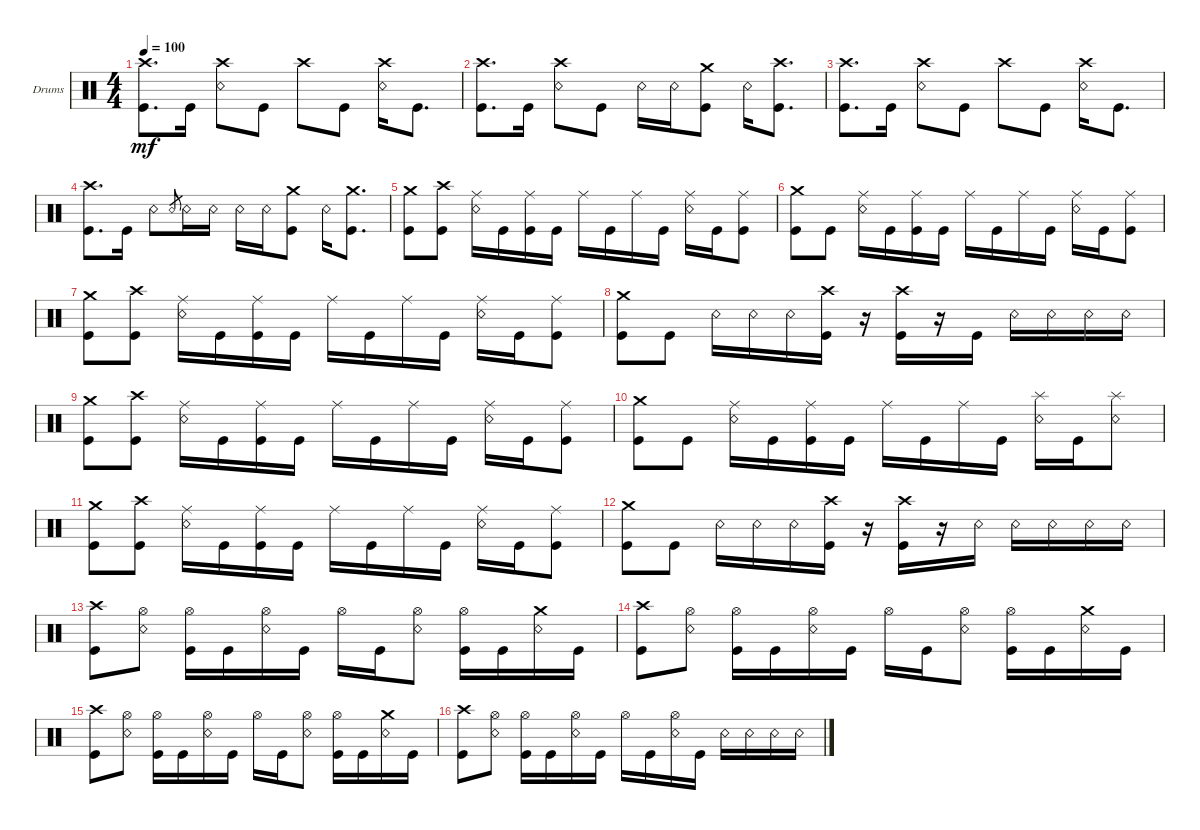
\defaultSystemsLayout 4
\bracketExtendMode groupsimilarinstruments
\firstSystemTrackNameOrientation horizontal
\otherSystemsTrackNameOrientation horizontal
\track ("Drumkit" "Drums") {instrument percussion}
\staff {score}
\articulation defaults
\ts (4 4)
\tempo 100
\clef neutral
\ks c
("Kick (hit)" "Crash high (hit)").8{d dy mf} "Kick (hit)".16 ("Snare (rim shot)" "Crash high (hit)").8 "Kick (hit)".8 "Crash high (hit)".8 "Kick (hit)".8 ("Snare (rim shot)" "Crash high (hit)").16 "Kick (hit)".8{d} |
("Kick (hit)" "Crash high (hit)").8{d} "Kick (hit)".16 ("Snare (rim shot)" "Crash high (hit)").8 "Kick (hit)".8 "Snare (rim shot)".16 "Snare (rim shot)".16 ("Kick (hit)" "Crash medium (hit)").8 "Snare (rim shot)".16 ("Kick (hit)" "Crash high (hit)").8{d} |
("Kick (hit)" "Crash high (hit)").8{d} "Kick (hit)".16 ("Snare (rim shot)" "Crash high (hit)").8 "Kick (hit)".8 "Crash high (hit)".8 "Kick (hit)".8 ("Snare (rim shot)" "Crash high (hit)").16 "Kick (hit)".8{d} |
("Kick (hit)" "Crash high (hit)").8{d} "Kick (hit)".16 "Snare (rim shot)".8 "Snare (rim shot)".8{gr} "Snare (rim shot)".16 "Snare (rim shot)".16 "Snare (rim shot)".16 "Snare (rim shot)".16 ("Kick (hit)" "Crash medium (hit)").8 "Snare (rim shot)".16 ("Kick (hit)" "Crash medium (hit)").8{d} |
("Kick (hit)" "Crash medium (hit)").8 ("Kick (hit)" "Crash high (hit)").8 ("Snare (rim shot)" "Ride (middle)").16 "Kick (hit)".16 ("Kick (hit)" "Ride (middle)").16 "Kick (hit)".16 "Ride (middle)".16 "Kick (hit)".16 "Ride (middle)".16 "Kick (hit)".16 ("Snare (rim shot)" "Ride (middle)").16 "Kick (hit)".16 ("Kick (hit)" "Ride (middle)").8 |
("Kick (hit)" "Crash medium (hit)").8 "Kick (hit)".8 ("Snare (rim shot)" "Ride (middle)").16 "Kick (hit)".16 ("Kick (hit)" "Ride (middle)").16 "Kick (hit)".16 "Ride (middle)".16 "Kick (hit)".16 "Ride (middle)".16 "Kick (hit)".16 ("Snare (rim shot)" "Ride (middle)").16 "Kick (hit)".16 ("Kick (hit)" "Ride (middle)").8 |
("Kick (hit)" "Crash medium (hit)").8 ("Kick (hit)" "Crash high (hit)").8 ("Snare (rim shot)" "Ride (middle)").16 "Kick (hit)".16 ("Kick (hit)" "Ride (middle)").16 "Kick (hit)".16 "Ride (middle)".16 "Kick (hit)".16 "Ride (middle)".16 "Kick (hit)".16 ("Snare (rim shot)" "Ride (middle)").16 "Kick (hit)".16 ("Kick (hit)" "Ride (middle)").8 |
("Kick (hit)" "Crash medium (hit)").8 "Kick (hit)".8 "Snare (rim shot)".16 "Snare (rim shot)".16 "Snare (rim shot)".16 ("Kick (hit)" "Crash high (hit)").16 r.16 ("Kick (hit)" "Crash high (hit)").16 r.16 "Kick (hit)".16 "Snare (rim shot)".16 "Snare (rim shot)".16 "Snare (rim shot)".16 "Snare (rim shot)".16 |
("Kick (hit)" "Crash medium (hit)").8 ("Kick (hit)" "Crash high (hit)").8 ("Snare (rim shot)" "Ride (middle)").16 "Kick (hit)".16 ("Kick (hit)" "Ride (middle)").16 "Kick (hit)".16 "Ride (middle)".16 "Kick (hit)".16 "Ride (middle)".16 "Kick (hit)".16 ("Snare (rim shot)" "Ride (middle)").16 "Kick (hit)".16 ("Kick (hit)" "Ride (middle)").8 |
("Kick (hit)" "Crash medium (hit)").8 "Kick (hit)".8 ("Snare (rim shot)" "Ride (middle)").16 "Kick (hit)".16 ("Kick (hit)" "Ride (middle)").16 "Kick (hit)".16 "Ride (middle)".16 "Kick (hit)".16 "Ride (middle)".16 "Kick (hit)".16 ("Snare (rim shot)" "Splash (hit)").16 "Kick (hit)".16 ("Snare (rim shot)" "Splash (hit)").8 |
("Kick (hit)" "Crash medium (hit)").8 ("Kick (hit)" "Crash high (hit)").8 ("Snare (rim shot)" "Ride (middle)").16 "Kick (hit)".16 ("Kick (hit)" "Ride (middle)").16 "Kick (hit)".16 "Ride (middle)".16 "Kick (hit)".16 "Ride (middle)".16 "Kick (hit)".16 ("Snare (rim shot)" "Ride (middle)").16 "Kick (hit)".16 ("Kick (hit)" "Ride (middle)").8 |
("Kick (hit)" "Crash medium (hit)").8 "Kick (hit)".8 "Snare (rim shot)".16 "Snare (rim shot)".16 "Snare (rim shot)".16 ("Kick (hit)" "Crash high (hit)").16 r.16 ("Kick (hit)" "Crash high (hit)").16 r.16 "Snare (rim shot)".16 "Snare (rim shot)".16 "Snare (rim shot)".16 "Snare (rim shot)".16 "Snare (rim shot)".16 |
("Kick (hit)" "Crash high (hit)").8 ("Snare (rim shot)" "Hi-Hat (open)").8 ("Kick (hit)" "Hi-Hat (open)").16 "Kick (hit)".16 ("Snare (rim shot)" "Hi-Hat (open)").16 "Kick (hit)".16 "Hi-Hat (open)".16 "Kick (hit)".16 ("Snare (rim shot)" "Hi-Hat (open)").8 ("Kick (hit)" "Hi-Hat (open)").16 "Kick (hit)".16 ("Snare (rim shot)" "Crash medium (hit)").16 "Kick (hit)".16 |
("Kick (hit)" "Crash high (hit)").8 ("Snare (rim shot)" "Hi-Hat (open)").8 ("Kick (hit)" "Hi-Hat (open)").16 "Kick (hit)".16 ("Snare (rim shot)" "Hi-Hat (open)").16 "Kick (hit)".16 "Hi-Hat (open)".16 "Kick (hit)".16 ("Snare (rim shot)" "Hi-Hat (open)").8 ("Kick (hit)" "Hi-Hat (open)").16 "Kick (hit)".16 ("Snare (rim shot)" "Crash medium (hit)").16 "Kick (hit)".16 |
("Kick (hit)" "Crash high (hit)").8 ("Snare (rim shot)" "Hi-Hat (open)").8 ("Kick (hit)" "Hi-Hat (open)").16 "Kick (hit)".16 ("Snare (rim shot)" "Hi-Hat (open)").16 "Kick (hit)".16 "Hi-Hat (open)".16 "Kick (hit)".16 ("Snare (rim shot)" "Hi-Hat (open)").8 ("Kick (hit)" "Hi-Hat (open)").16 "Kick (hit)".16 ("Snare (rim shot)" "Crash medium (hit)").16 "Kick (hit)".16 |
("Kick (hit)" "Crash high (hit)").8 ("Snare (rim shot)" "Hi-Hat (open)").8 ("Kick (hit)" "Hi-Hat (open)").16 "Kick (hit)".16 ("Snare (rim shot)" "Hi-Hat (open)").16 "Kick (hit)".16 "Hi-Hat (open)".16 "Kick (hit)".16 ("Snare (rim shot)" "Hi-Hat (open)").16 "Kick (hit)".16 "Snare (rim shot)".16 "Snare (rim shot)".16 "Snare (rim shot)".16 "Snare (rim shot)".16
